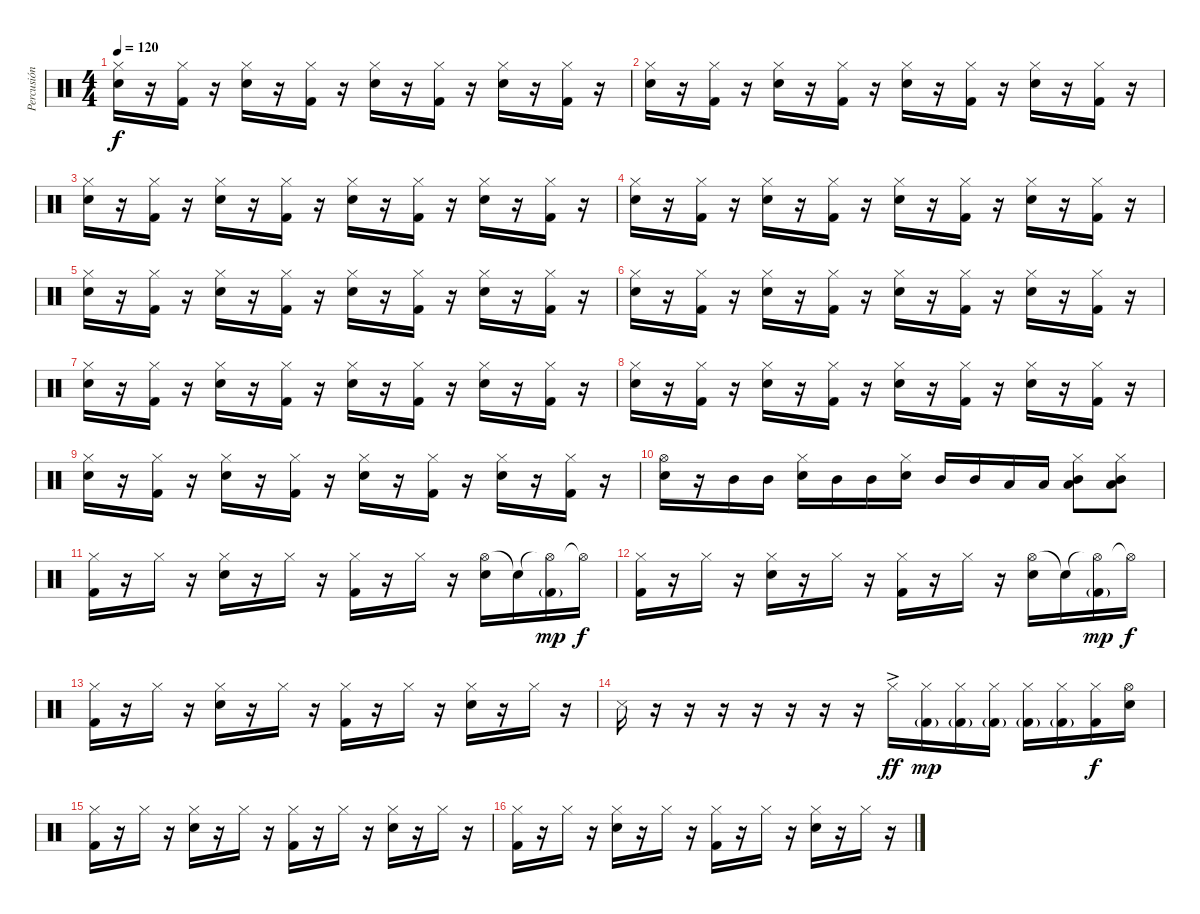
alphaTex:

\track ("Percusión" "Percusión") {instrument percussion}
\staff {score}
\articulation defaults
\ts (4 4)
\tempo 120
\clef neutral
\ks c
("Hi-Hat (closed)" "Snare (hit) 2").16{dy f} r.16 ("Hi-Hat (closed)" "Kick (hit) 2").16 r.16 ("Hi-Hat (closed)" "Snare (hit) 2").16 r.16 ("Hi-Hat (closed)" "Kick (hit) 2").16 r.16 ("Hi-Hat (closed)" "Snare (hit) 2").16 r.16 ("Hi-Hat (closed)" "Kick (hit) 2").16 r.16 ("Hi-Hat (closed)" "Snare (hit) 2").16 r.16 ("Hi-Hat (closed)" "Kick (hit) 2").16 r.16 |
("Hi-Hat (closed)" "Snare (hit) 2").16 r.16 ("Hi-Hat (closed)" "Kick (hit) 2").16 r.16 ("Hi-Hat (closed)" "Snare (hit) 2").16 r.16 ("Hi-Hat (closed)" "Kick (hit) 2").16 r.16 ("Hi-Hat (closed)" "Snare (hit) 2").16 r.16 ("Hi-Hat (closed)" "Kick (hit) 2").16 r.16 ("Hi-Hat (closed)" "Snare (hit) 2").16 r.16 ("Hi-Hat (closed)" "Kick (hit) 2").16 r.16 |
("Hi-Hat (closed)" "Snare (hit) 2").16 r.16 ("Hi-Hat (closed)" "Kick (hit) 2").16 r.16 ("Hi-Hat (closed)" "Snare (hit) 2").16 r.16 ("Hi-Hat (closed)" "Kick (hit) 2").16 r.16 ("Hi-Hat (closed)" "Snare (hit) 2").16 r.16 ("Hi-Hat (closed)" "Kick (hit) 2").16 r.16 ("Hi-Hat (closed)" "Snare (hit) 2").16 r.16 ("Hi-Hat (closed)" "Kick (hit) 2").16 r.16 |
("Hi-Hat (closed)" "Snare (hit) 2").16 r.16 ("Hi-Hat (closed)" "Kick (hit) 2").16 r.16 ("Hi-Hat (closed)" "Snare (hit) 2").16 r.16 ("Hi-Hat (closed)" "Kick (hit) 2").16 r.16 ("Hi-Hat (closed)" "Snare (hit) 2").16 r.16 ("Hi-Hat (closed)" "Kick (hit) 2").16 r.16 ("Hi-Hat (closed)" "Snare (hit) 2").16 r.16 ("Hi-Hat (closed)" "Kick (hit) 2").16 r.16 |
("Hi-Hat (closed)" "Snare (hit) 2").16 r.16 ("Hi-Hat (closed)" "Kick (hit) 2").16 r.16 ("Hi-Hat (closed)" "Snare (hit) 2").16 r.16 ("Hi-Hat (closed)" "Kick (hit) 2").16 r.16 ("Hi-Hat (closed)" "Snare (hit) 2").16 r.16 ("Hi-Hat (closed)" "Kick (hit) 2").16 r.16 ("Hi-Hat (closed)" "Snare (hit) 2").16 r.16 ("Hi-Hat (closed)" "Kick (hit) 2").16 r.16 |
("Hi-Hat (closed)" "Snare (hit) 2").16 r.16 ("Hi-Hat (closed)" "Kick (hit) 2").16 r.16 ("Hi-Hat (closed)" "Snare (hit) 2").16 r.16 ("Hi-Hat (closed)" "Kick (hit) 2").16 r.16 ("Hi-Hat (closed)" "Snare (hit) 2").16 r.16 ("Hi-Hat (closed)" "Kick (hit) 2").16 r.16 ("Hi-Hat (closed)" "Snare (hit) 2").16 r.16 ("Hi-Hat (closed)" "Kick (hit) 2").16 r.16 |
("Hi-Hat (closed)" "Snare (hit) 2").16 r.16 ("Hi-Hat (closed)" "Kick (hit) 2").16 r.16 ("Hi-Hat (closed)" "Snare (hit) 2").16 r.16 ("Hi-Hat (closed)" "Kick (hit) 2").16 r.16 ("Hi-Hat (closed)" "Snare (hit) 2").16 r.16 ("Hi-Hat (closed)" "Kick (hit) 2").16 r.16 ("Hi-Hat (closed)" "Snare (hit) 2").16 r.16 ("Hi-Hat (closed)" "Kick (hit) 2").16 r.16 |
("Hi-Hat (closed)" "Snare (hit) 2").16 r.16 ("Hi-Hat (closed)" "Kick (hit) 2").16 r.16 ("Hi-Hat (closed)" "Snare (hit) 2").16 r.16 ("Hi-Hat (closed)" "Kick (hit) 2").16 r.16 ("Hi-Hat (closed)" "Snare (hit) 2").16 r.16 ("Hi-Hat (closed)" "Kick (hit) 2").16 r.16 ("Hi-Hat (closed)" "Snare (hit) 2").16 r.16 ("Hi-Hat (closed)" "Kick (hit) 2").16 r.16 |
("Hi-Hat (closed)" "Snare (hit) 2").16 r.16 ("Hi-Hat (closed)" "Kick (hit) 2").16 r.16 ("Hi-Hat (closed)" "Snare (hit) 2").16 r.16 ("Hi-Hat (closed)" "Kick (hit) 2").16 r.16 ("Hi-Hat (closed)" "Snare (hit) 2").16 r.16 ("Hi-Hat (closed)" "Kick (hit) 2").16 r.16 ("Hi-Hat (closed)" "Snare (hit) 2").16 r.16 ("Hi-Hat (closed)" "Kick (hit) 2").16 r.16 |
("Hi-Hat (open)" "Snare (hit) 2").16 r.16 "Mid Tom (hit)".16 "Mid Tom (hit)".16 ("Hi-Hat (closed)" "Snare (hit) 2").16 "Mid Tom (hit)".16 "Mid Tom (hit)".16 ("Hi-Hat (closed)" "Snare (hit) 2").16 "Mid Tom (hit)".16 "Mid Tom (hit)".16 "Low Tom (hit)".16 "Low Tom (hit)".16 ("Hi-Hat (closed)" "Low Tom (hit)" "Mid Tom (hit)").8 ("Hi-Hat (closed)" "Low Tom (hit)" "Mid Tom (hit)").8 |
("Hi-Hat (closed)" "Kick (hit) 2").16 r.16 "Hi-Hat (closed)".16 r.16 ("Hi-Hat (closed)" "Snare (hit) 2").16 r.16 "Hi-Hat (closed)".16 r.16 ("Hi-Hat (closed)" "Kick (hit) 2").16 r.16 "Hi-Hat (closed)".16 r.16 ("Hi-Hat (open)" "Snare (hit) 2").16 "Snare (hit)"{t}.16 ("Hi-Hat (open)"{t} "Kick (hit) 2"{g}).16{dy mp} "Hi-Hat (open)"{t}.16{dy f} |
("Hi-Hat (closed)" "Kick (hit) 2").16 r.16 "Hi-Hat (closed)".16 r.16 ("Hi-Hat (closed)" "Snare (hit) 2").16 r.16 "Hi-Hat (closed)".16 r.16 ("Hi-Hat (closed)" "Kick (hit) 2").16 r.16 "Hi-Hat (closed)".16 r.16 ("Hi-Hat (open)" "Snare (hit) 2").16 "Snare (hit)"{t}.16 ("Hi-Hat (open)"{t} "Kick (hit) 2"{g}).16{dy mp} "Hi-Hat (open)"{t}.16{dy f} |
("Hi-Hat (closed)" "Kick (hit) 2").16 r.16 "Hi-Hat (closed)".16 r.16 ("Hi-Hat (closed)" "Snare (hit) 2").16 r.16 "Hi-Hat (closed)".16 r.16 ("Hi-Hat (closed)" "Kick (hit) 2").16 r.16 "Hi-Hat (closed)".16 r.16 ("Hi-Hat (closed)" "Snare (hit) 2").16 r.16 "Hi-Hat (closed)".16 r.16 |
"Snare (side stick) 3".16 r.16 r.16 r.16 r.16 r.16 r.16 r.16 "Hi-Hat (closed)"{ac}.16{dy ff} ("Hi-Hat (closed)" "Kick (hit) 2"{g}).16{dy mp} ("Hi-Hat (closed)" "Kick (hit) 2"{g}).16 ("Hi-Hat (closed)" "Kick (hit) 2"{g}).16 ("Hi-Hat (closed)" "Kick (hit) 2"{g}).16 ("Hi-Hat (closed)" "Kick (hit) 2"{g}).16 ("Hi-Hat (closed)" "Kick (hit) 2").16{dy f} ("Hi-Hat (open)" "Snare (hit) 2").16 |
("Hi-Hat (closed)" "Kick (hit) 2").16 r.16 "Hi-Hat (closed)".16 r.16 ("Hi-Hat (closed)" "Snare (hit) 2").16 r.16 "Hi-Hat (closed)".16 r.16 ("Hi-Hat (closed)" "Kick (hit) 2").16 r.16 "Hi-Hat (closed)".16 r.16 ("Hi-Hat (closed)" "Snare (hit) 2").16 r.16 "Hi-Hat (closed)".16 r.16 |
("Hi-Hat (closed)" "Kick (hit) 2").16 r.16 "Hi-Hat (closed)".16 r.16 ("Hi-Hat (closed)" "Snare (hit) 2").16 r.16 "Hi-Hat (closed)".16 r.16 ("Hi-Hat (closed)" "Kick (hit) 2").16 r.16 "Hi-Hat (closed)".16 r.16 ("Hi-Hat (closed)" "Snare (hit) 2").16 r.16 "Hi-Hat (closed)".16 r.16
